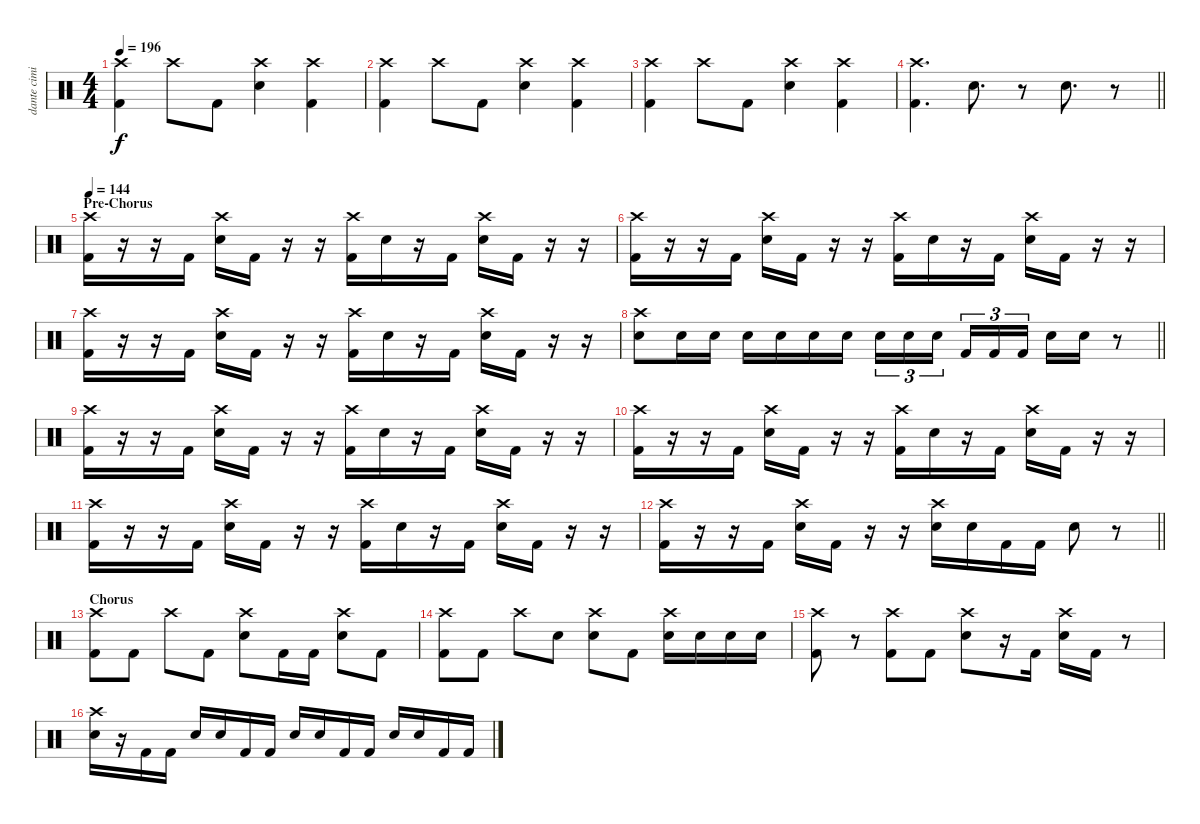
\track ("dante cimino" "dante cimi") {instrument percussion}
\staff {score}
\articulation defaults
\ts (4 4)
\tempo 196
\clef neutral
\ks c
("Crash high (hit)" "Kick (hit) 2").4{dy f} "Crash high (hit)".8 "Kick (hit) 2".8 ("Crash high (hit)" "Electric Snare (hit)").4 ("Crash high (hit)" "Kick (hit) 2").4 |
("Crash high (hit)" "Kick (hit) 2").4 "Crash high (hit)".8 "Kick (hit) 2".8 ("Crash high (hit)" "Electric Snare (hit)").4 ("Crash high (hit)" "Kick (hit) 2").4 |
("Crash high (hit)" "Kick (hit) 2").4 "Crash high (hit)".8 "Kick (hit) 2".8 ("Crash high (hit)" "Electric Snare (hit)").4 ("Crash high (hit)" "Kick (hit) 2").4 |
\barLineRight lightlight
("Crash high (hit)" "Kick (hit) 2").4{d} "Electric Snare (hit)".8{d} r.8 "Electric Snare (hit)".8{d} r.8 |
\section ("" "Pre-Chorus")
\tempo 144
("Crash high (hit)" "Kick (hit) 2").16 r.16 r.16 "Kick (hit) 2".16 ("Crash high (hit)" "Electric Snare (hit)").16 "Kick (hit) 2".16 r.16 r.16 ("Crash high (hit)" "Kick (hit) 2").16 "Electric Snare (hit)".16 r.16 "Kick (hit) 2".16 ("Crash high (hit)" "Electric Snare (hit)").16 "Kick (hit) 2".16 r.16 r.16 |
("Crash high (hit)" "Kick (hit) 2").16 r.16 r.16 "Kick (hit) 2".16 ("Crash high (hit)" "Electric Snare (hit)").16 "Kick (hit) 2".16 r.16 r.16 ("Crash high (hit)" "Kick (hit) 2").16 "Electric Snare (hit)".16 r.16 "Kick (hit) 2".16 ("Crash high (hit)" "Electric Snare (hit)").16 "Kick (hit) 2".16 r.16 r.16 |
("Crash high (hit)" "Kick (hit) 2").16 r.16 r.16 "Kick (hit) 2".16 ("Crash high (hit)" "Electric Snare (hit)").16 "Kick (hit) 2".16 r.16 r.16 ("Crash high (hit)" "Kick (hit) 2").16 "Electric Snare (hit)".16 r.16 "Kick (hit) 2".16 ("Crash high (hit)" "Electric Snare (hit)").16 "Kick (hit) 2".16 r.16 r.16 |
\barLineRight lightlight
("Crash high (hit)" "Electric Snare (hit)").8 "Electric Snare (hit)".16 "Electric Snare (hit)".16 "Electric Snare (hit)".16 "Electric Snare (hit)".16 "Electric Snare (hit)".16 "Electric Snare (hit)".16 "Electric Snare (hit)".16{tu (3 2)} "Electric Snare (hit)".16{tu (3 2)} "Electric Snare (hit)".16{tu (3 2) beam splitsecondary} "Kick (hit) 2".16{tu (3 2)} "Kick (hit) 2".16{tu (3 2)} "Kick (hit) 2".16{tu (3 2)} "Electric Snare (hit)".16 "Electric Snare (hit)".16 r.8 |
\section ("" "")
("Crash high (hit)" "Kick (hit) 2").16 r.16 r.16 "Kick (hit) 2".16 ("Crash high (hit)" "Electric Snare (hit)").16 "Kick (hit) 2".16 r.16 r.16 ("Crash high (hit)" "Kick (hit) 2").16 "Electric Snare (hit)".16 r.16 "Kick (hit) 2".16 ("Crash high (hit)" "Electric Snare (hit)").16 "Kick (hit) 2".16 r.16 r.16 |
("Crash high (hit)" "Kick (hit) 2").16 r.16 r.16 "Kick (hit) 2".16 ("Crash high (hit)" "Electric Snare (hit)").16 "Kick (hit) 2".16 r.16 r.16 ("Crash high (hit)" "Kick (hit) 2").16 "Electric Snare (hit)".16 r.16 "Kick (hit) 2".16 ("Crash high (hit)" "Electric Snare (hit)").16 "Kick (hit) 2".16 r.16 r.16 |
("Crash high (hit)" "Kick (hit) 2").16 r.16 r.16 "Kick (hit) 2".16 ("Crash high (hit)" "Electric Snare (hit)").16 "Kick (hit) 2".16 r.16 r.16 ("Crash high (hit)" "Kick (hit) 2").16 "Electric Snare (hit)".16 r.16 "Kick (hit) 2".16 ("Crash high (hit)" "Electric Snare (hit)").16 "Kick (hit) 2".16 r.16 r.16 |
\barLineRight lightlight
("Crash high (hit)" "Kick (hit) 2").16 r.16 r.16 "Kick (hit) 2".16 ("Crash high (hit)" "Electric Snare (hit)").16 "Kick (hit) 2".16 r.16 r.16 ("Crash high (hit)" "Electric Snare (hit)").16 "Electric Snare (hit)".16 "Kick (hit) 2".16 "Kick (hit) 2".16 "Electric Snare (hit)".8 r.8 |
\section ("" "Chorus")
("Crash high (hit)" "Kick (hit) 2").8 "Kick (hit) 2".8 "Crash high (hit)".8 "Kick (hit) 2".8 ("Crash high (hit)" "Electric Snare (hit)").8 "Kick (hit) 2".16 "Kick (hit) 2".16 ("Crash high (hit)" "Electric Snare (hit)").8 "Kick (hit) 2".8 |
("Crash high (hit)" "Kick (hit) 2").8 "Kick (hit) 2".8 "Crash high (hit)".8 "Electric Snare (hit)".8 ("Crash high (hit)" "Electric Snare (hit)").8 "Kick (hit) 2".8 ("Crash high (hit)" "Electric Snare (hit)").16 "Electric Snare (hit)".16 "Electric Snare (hit)".16 "Electric Snare (hit)".16 |
("Crash high (hit)" "Kick (hit) 2").8 r.8 ("Crash high (hit)" "Kick (hit) 2").8 "Kick (hit) 2".8 ("Crash high (hit)" "Electric Snare (hit)").8 r.16 "Kick (hit) 2".16 ("Crash high (hit)" "Electric Snare (hit)").16 "Kick (hit) 2".16 r.8 |
("Crash high (hit)" "Electric Snare (hit)").16 r.16 "Kick (hit) 2".16 "Kick (hit) 2".16 "Electric Snare (hit)".16 "Electric Snare (hit)".16 "Kick (hit) 2".16 "Kick (hit) 2".16 "Electric Snare (hit)".16 "Electric Snare (hit)".16 "Kick (hit) 2".16 "Kick (hit) 2".16 "Electric Snare (hit)".16 "Electric Snare (hit)".16 "Kick (hit) 2".16 "Kick (hit) 2".16
